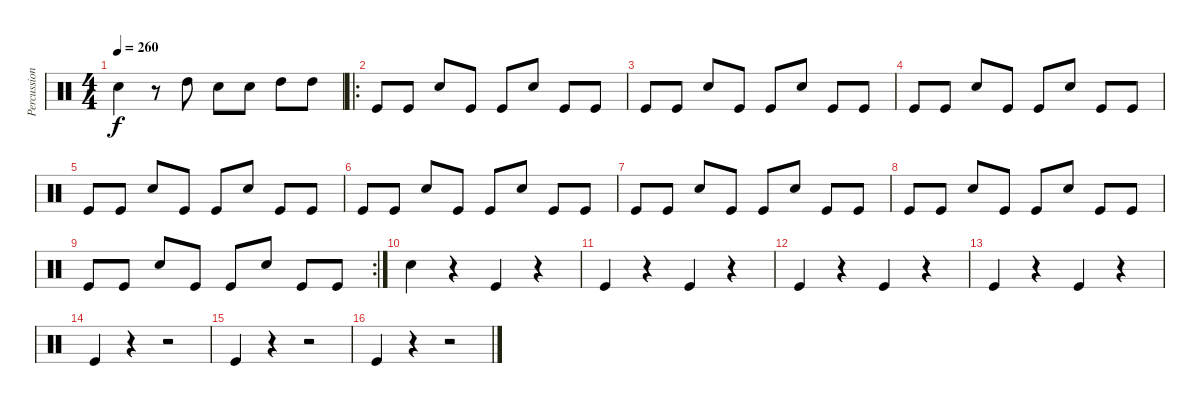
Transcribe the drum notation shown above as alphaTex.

\track ("Percussion" "Percussion") {instrument percussion}
\staff {score}
\articulation defaults
\ts (4 4)
\tempo 260
\clef neutral
\ks c "Snare (hit) 2".4{dy f}
r.8 "High Tom (hit)".8 "Snare (hit) 2".8 "Snare (hit) 2".8 "High Tom (hit)".8 "High Tom (hit)".8 |
\ro "Kick (hit)".8 "Kick (hit)".8 "Snare (hit) 2".8 "Kick (hit)".8 "Kick (hit)".8 "Snare (hit) 2".8 "Kick (hit)".8 "Kick (hit)".8
|
"Kick (hit)".8 "Kick (hit)".8 "Snare (hit) 2".8 "Kick (hit)".8 "Kick (hit)".8 "Snare (hit) 2".8 "Kick (hit)".8 "Kick (hit)".8 |
"Kick (hit)".8 "Kick (hit)".8 "Snare (hit) 2".8 "Kick (hit)".8 "Kick (hit)".8 "Snare (hit) 2".8 "Kick (hit)".8 "Kick (hit)".8 |
"Kick (hit)".8 "Kick (hit)".8 "Snare (hit) 2".8 "Kick (hit)".8 "Kick (hit)".8 "Snare (hit) 2".8 "Kick (hit)".8 "Kick (hit)".8 |
"Kick (hit)".8 "Kick (hit)".8 "Snare (hit) 2".8 "Kick (hit)".8 "Kick (hit)".8 "Snare (hit) 2".8 "Kick (hit)".8 "Kick (hit)".8 |
"Kick (hit)".8 "Kick (hit)".8 "Snare (hit) 2".8 "Kick (hit)".8 "Kick (hit)".8 "Snare (hit) 2".8 "Kick (hit)".8 "Kick (hit)".8 |
"Kick (hit)".8 "Kick (hit)".8 "Snare (hit) 2".8 "Kick (hit)".8 "Kick (hit)".8 "Snare (hit) 2".8 "Kick (hit)".8 "Kick (hit)".8 |
\rc 2 "Kick (hit)".8 "Kick (hit)".8 "Snare (hit) 2".8 "Kick (hit)".8 "Kick (hit)".8 "Snare (hit) 2".8 "Kick (hit)".8 "Kick (hit)".8
|
"Snare (hit) 2".4 r.4 "Kick (hit)".4 r.4 |
"Kick (hit)".4 r.4 "Kick (hit)".4 r.4 |
"Kick (hit)".4 r.4 "Kick (hit)".4 r.4 |
"Kick (hit)".4 r.4 "Kick (hit)".4 r.4 |
"Kick (hit)".4 r.4 r.2 |
"Kick (hit)".4 r.4 r.2 |
"Kick (hit)".4 r.4 r.2
